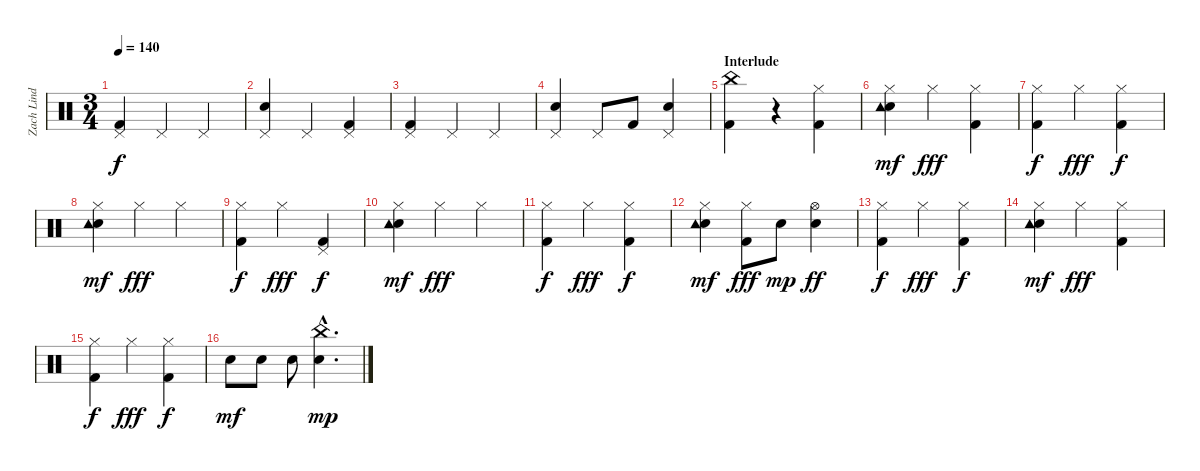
\track ("Zach Lind - Drums" "Zach Lind ") {instrument percussion}
\staff {score}
\articulation defaults
\ts (3 4)
\tempo 140
\clef neutral
\ks c
("Pedal Hi-Hat (hit)" "Kick (hit) 2").4{dy f} "Pedal Hi-Hat (hit)".4 "Pedal Hi-Hat (hit)".4 |
("Pedal Hi-Hat (hit)" "Electric Snare (hit)").4 "Pedal Hi-Hat (hit)".4 ("Pedal Hi-Hat (hit)" "Kick (hit) 2").4 |
("Pedal Hi-Hat (hit)" "Kick (hit) 2").4 "Pedal Hi-Hat (hit)".4 "Pedal Hi-Hat (hit)".4 |
("Pedal Hi-Hat (hit)" "Electric Snare (hit)").4 "Pedal Hi-Hat (hit)".8 "Kick (hit) 2".8 ("Pedal Hi-Hat (hit)" "Electric Snare (hit)").4 |
\section ("" "Interlude")
("China (hit)" "Kick (hit) 2").4 r.4 ("Hi-Hat (closed)" "Kick (hit) 2").4 |
("Hi-Hat (closed)" "Electric Snare (hit)" "Tambourine (hit)").4{dy mf} "Hi-Hat (closed)".4{dy fff} ("Hi-Hat (closed)" "Kick (hit) 2").4 |
("Hi-Hat (closed)" "Kick (hit) 2").4{dy f} "Hi-Hat (closed)".4{dy fff} ("Hi-Hat (closed)" "Kick (hit) 2").4{dy f} |
("Hi-Hat (closed)" "Electric Snare (hit)" "Tambourine (hit)").4{dy mf} "Hi-Hat (closed)".4{dy fff} "Hi-Hat (closed)".4 |
("Hi-Hat (closed)" "Kick (hit) 2").4{dy f} "Hi-Hat (closed)".4{dy fff} ("Pedal Hi-Hat (hit)" "Kick (hit) 2").4{dy f} |
("Hi-Hat (closed)" "Electric Snare (hit)" "Tambourine (hit)").4{dy mf} "Hi-Hat (closed)".4{dy fff} "Hi-Hat (closed)".4 |
("Hi-Hat (closed)" "Kick (hit) 2").4{dy f} "Hi-Hat (closed)".4{dy fff} ("Hi-Hat (closed)" "Kick (hit) 2").4{dy f} |
("Hi-Hat (closed)" "Electric Snare (hit)" "Tambourine (hit)").4{dy mf} ("Hi-Hat (closed)" "Kick (hit) 2").8{dy fff} "Electric Snare (hit)".8{dy mp} ("Hi-Hat (open)" "Electric Snare (hit)").4{dy ff} |
("Hi-Hat (closed)" "Kick (hit) 2").4{dy f} "Hi-Hat (closed)".4{dy fff} ("Hi-Hat (closed)" "Kick (hit) 2").4{dy f} |
("Hi-Hat (closed)" "Electric Snare (hit)" "Tambourine (hit)").4{dy mf} "Hi-Hat (closed)".4{dy fff} ("Hi-Hat (closed)" "Kick (hit) 2").4 |
("Hi-Hat (closed)" "Kick (hit) 2").4{dy f} "Hi-Hat (closed)".4{dy fff} ("Hi-Hat (closed)" "Kick (hit) 2").4{dy f} |
"Electric Snare (hit)".8{dy mf} "Electric Snare (hit)".8 "Electric Snare (hit)".8 ("China (hit)"{hac} "Electric Snare (hit)"{hac}).4{d dy mp}
